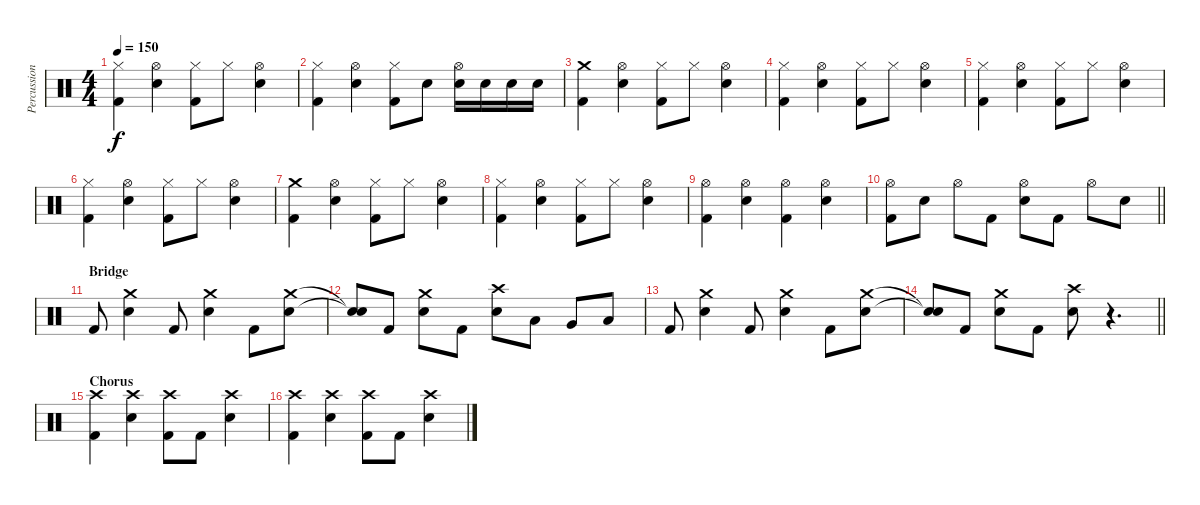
\track ("Percussion" "Percussion") {instrument percussion}
\staff {score}
\articulation defaults
\ts (4 4)
\tempo 150
\clef neutral
\ks c
("Hi-Hat (closed)" "Kick (hit) 2").4{dy f} ("Hi-Hat (open)" "Electric Snare (hit)").4 ("Hi-Hat (closed)" "Kick (hit) 2").8 "Hi-Hat (closed)".8 ("Hi-Hat (open)" "Electric Snare (hit)").4 |
("Hi-Hat (closed)" "Kick (hit) 2").4 ("Hi-Hat (open)" "Electric Snare (hit)").4 ("Hi-Hat (closed)" "Kick (hit) 2").8 "Electric Snare (hit)".8 ("Hi-Hat (open)" "Electric Snare (hit)").16 "Electric Snare (hit)".16 "Electric Snare (hit)".16 "Electric Snare (hit)".16 |
("Crash medium (hit)" "Kick (hit) 2").4 ("Hi-Hat (open)" "Electric Snare (hit)").4 ("Hi-Hat (closed)" "Kick (hit) 2").8 "Hi-Hat (closed)".8 ("Hi-Hat (open)" "Electric Snare (hit)").4 |
("Hi-Hat (closed)" "Kick (hit) 2").4 ("Hi-Hat (open)" "Electric Snare (hit)").4 ("Hi-Hat (closed)" "Kick (hit) 2").8 "Hi-Hat (closed)".8 ("Hi-Hat (open)" "Electric Snare (hit)").4 |
("Hi-Hat (closed)" "Kick (hit) 2").4 ("Hi-Hat (open)" "Electric Snare (hit)").4 ("Hi-Hat (closed)" "Kick (hit) 2").8 "Hi-Hat (closed)".8 ("Hi-Hat (open)" "Electric Snare (hit)").4 |
("Hi-Hat (closed)" "Kick (hit) 2").4 ("Hi-Hat (open)" "Electric Snare (hit)").4 ("Hi-Hat (closed)" "Kick (hit) 2").8 "Hi-Hat (closed)".8 ("Hi-Hat (open)" "Electric Snare (hit)").4 |
("Crash medium (hit)" "Kick (hit) 2").4 ("Hi-Hat (open)" "Electric Snare (hit)").4 ("Hi-Hat (closed)" "Kick (hit) 2").8 "Hi-Hat (closed)".8 ("Hi-Hat (open)" "Electric Snare (hit)").4 |
("Hi-Hat (closed)" "Kick (hit) 2").4 ("Hi-Hat (open)" "Electric Snare (hit)").4 ("Hi-Hat (closed)" "Kick (hit) 2").8 "Hi-Hat (closed)".8 ("Hi-Hat (open)" "Electric Snare (hit)").4 |
("Hi-Hat (open)" "Kick (hit) 2").4 ("Hi-Hat (open)" "Electric Snare (hit)").4 ("Hi-Hat (open)" "Kick (hit) 2").4 ("Hi-Hat (open)" "Electric Snare (hit)").4 |
\barLineRight lightlight
("Hi-Hat (open)" "Kick (hit) 2").8 "Electric Snare (hit)".8 "Hi-Hat (open)".8 "Kick (hit) 2".8 ("Hi-Hat (open)" "Electric Snare (hit)").8 "Kick (hit) 2".8 "Hi-Hat (open)".8 "Electric Snare (hit)".8 |
\section ("" "Bridge")
"Kick (hit) 2".8 ("Crash medium (hit)" "Electric Snare (hit)").4 "Kick (hit) 2".8 ("Crash medium (hit)" "Electric Snare (hit)").4 "Kick (hit) 2".8 ("Crash medium (hit)" "Electric Snare (hit)").8 |
("Snare (hit)"{t} "Snare (hit)"{t}).8 "Kick (hit) 2".8 ("Crash medium (hit)" "Electric Snare (hit)").8 "Kick (hit) 2".8 ("Crash high (hit)" "Electric Snare (hit)").8 "Low Tom (hit)".8 "Very Low Tom (hit)".8 "Low Floor Tom (hit)".8 |
"Kick (hit) 2".8 ("Crash medium (hit)" "Electric Snare (hit)").4 "Kick (hit) 2".8 ("Crash medium (hit)" "Electric Snare (hit)").4 "Kick (hit) 2".8 ("Crash medium (hit)" "Electric Snare (hit)").8 |
\barLineRight lightlight
("Snare (hit)"{t} "Snare (hit)"{t}).8 "Kick (hit) 2".8 ("Crash medium (hit)" "Electric Snare (hit)").8 "Kick (hit) 2".8 ("Crash high (hit)" "Electric Snare (hit)").8 r.4{d} |
\section ("" "Chorus")
("Crash high (hit)" "Kick (hit) 2").4 ("Crash high (hit)" "Electric Snare (hit)").4 ("Crash high (hit)" "Kick (hit) 2").8 "Kick (hit) 2".8 ("Crash high (hit)" "Electric Snare (hit)").4 |
("Crash high (hit)" "Kick (hit) 2").4 ("Crash high (hit)" "Electric Snare (hit)").4 ("Crash high (hit)" "Kick (hit) 2").8 "Kick (hit) 2".8 ("Crash high (hit)" "Electric Snare (hit)").4
